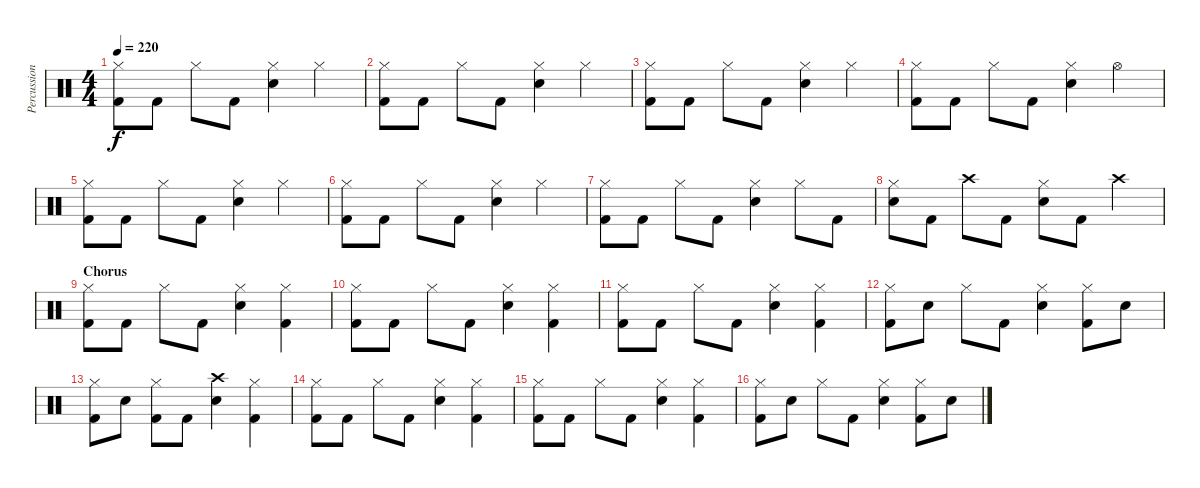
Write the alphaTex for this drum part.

\track ("Percussion" "Percussion") {instrument percussion}
\staff {score}
\articulation defaults
\ts (4 4)
\tempo 220
\clef neutral
\ks c
("Hi-Hat (closed)" "Kick (hit) 2").8{dy f} "Kick (hit) 2".8 "Hi-Hat (closed)".8 "Kick (hit) 2".8 ("Hi-Hat (closed)" "Snare (hit) 2").4 "Hi-Hat (closed)".4 |
("Hi-Hat (closed)" "Kick (hit) 2").8 "Kick (hit) 2".8 "Hi-Hat (closed)".8 "Kick (hit) 2".8 ("Hi-Hat (closed)" "Snare (hit) 2").4 "Hi-Hat (closed)".4 |
("Hi-Hat (closed)" "Kick (hit) 2").8 "Kick (hit) 2".8 "Hi-Hat (closed)".8 "Kick (hit) 2".8 ("Hi-Hat (closed)" "Snare (hit) 2").4 "Hi-Hat (closed)".4 |
("Hi-Hat (closed)" "Kick (hit) 2").8 "Kick (hit) 2".8 "Hi-Hat (closed)".8 "Kick (hit) 2".8 ("Hi-Hat (closed)" "Snare (hit) 2").4 "Hi-Hat (open)".4 |
("Hi-Hat (closed)" "Kick (hit) 2").8 "Kick (hit) 2".8 "Hi-Hat (closed)".8 "Kick (hit) 2".8 ("Hi-Hat (closed)" "Snare (hit) 2").4 "Hi-Hat (closed)".4 |
("Hi-Hat (closed)" "Kick (hit) 2").8 "Kick (hit) 2".8 "Hi-Hat (closed)".8 "Kick (hit) 2".8 ("Hi-Hat (closed)" "Snare (hit) 2").4 "Hi-Hat (closed)".4 |
("Hi-Hat (closed)" "Kick (hit) 2").8 "Kick (hit) 2".8 "Hi-Hat (closed)".8 "Kick (hit) 2".8 ("Hi-Hat (closed)" "Snare (hit) 2").4 "Hi-Hat (closed)".8 "Kick (hit) 2".8 |
("Hi-Hat (closed)" "Snare (hit) 2").8 "Kick (hit) 2".8 "Crash high (hit)".8 "Kick (hit) 2".8 ("Hi-Hat (closed)" "Snare (hit) 2").8 "Kick (hit) 2".8 "Crash high (hit)".4 |
\section ("" "Chorus")
("Hi-Hat (closed)" "Kick (hit) 2").8 "Kick (hit) 2".8 "Hi-Hat (closed)".8 "Kick (hit) 2".8 ("Hi-Hat (closed)" "Snare (hit) 2").4 ("Hi-Hat (closed)" "Kick (hit) 2").4 |
("Hi-Hat (closed)" "Kick (hit) 2").8 "Kick (hit) 2".8 "Hi-Hat (closed)".8 "Kick (hit) 2".8 ("Hi-Hat (closed)" "Snare (hit) 2").4 ("Hi-Hat (closed)" "Kick (hit) 2").4 |
("Hi-Hat (closed)" "Kick (hit) 2").8 "Kick (hit) 2".8 "Hi-Hat (closed)".8 "Kick (hit) 2".8 ("Hi-Hat (closed)" "Snare (hit) 2").4 ("Hi-Hat (closed)" "Kick (hit) 2").4 |
("Hi-Hat (closed)" "Kick (hit) 2").8 "Snare (hit) 2".8 "Hi-Hat (closed)".8 "Kick (hit) 2".8 ("Hi-Hat (closed)" "Snare (hit) 2").4 ("Hi-Hat (closed)" "Kick (hit) 2").8 "Snare (hit) 2".8 |
("Hi-Hat (closed)" "Kick (hit) 2").8 "Snare (hit) 2".8 ("Hi-Hat (closed)" "Kick (hit) 2").8 "Kick (hit) 2".8 ("Crash high (hit)" "Snare (hit) 2").4 ("Hi-Hat (closed)" "Kick (hit) 2").4 |
("Hi-Hat (closed)" "Kick (hit) 2").8 "Kick (hit) 2".8 "Hi-Hat (closed)".8 "Kick (hit) 2".8 ("Hi-Hat (closed)" "Snare (hit) 2").4 ("Hi-Hat (closed)" "Kick (hit) 2").4 |
("Hi-Hat (closed)" "Kick (hit) 2").8 "Kick (hit) 2".8 "Hi-Hat (closed)".8 "Kick (hit) 2".8 ("Hi-Hat (closed)" "Snare (hit) 2").4 ("Hi-Hat (closed)" "Kick (hit) 2").4 |
("Hi-Hat (closed)" "Kick (hit) 2").8 "Snare (hit) 2".8 "Hi-Hat (closed)".8 "Kick (hit) 2".8 ("Hi-Hat (closed)" "Snare (hit) 2").4 ("Hi-Hat (closed)" "Kick (hit) 2").8 "Snare (hit) 2".8
